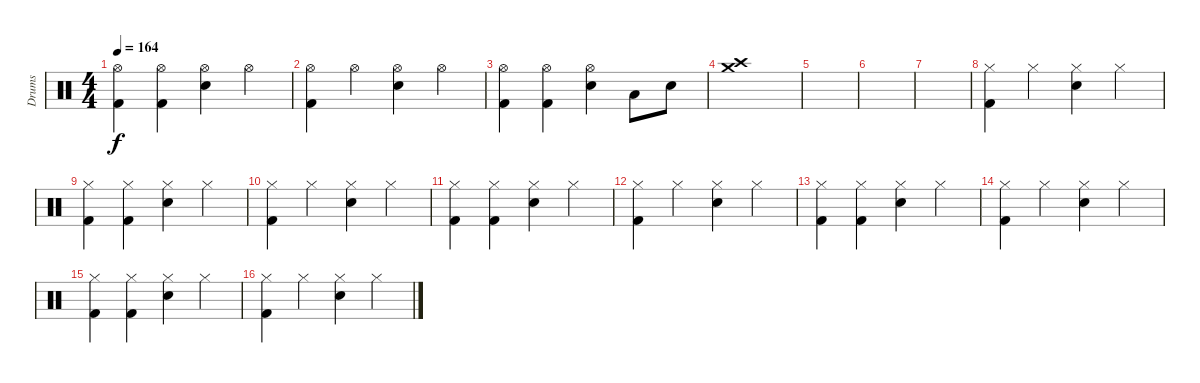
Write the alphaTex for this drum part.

\track ("Drums" "Drums") {instrument percussion}
\staff {score}
\articulation defaults
\ts (4 4)
\tempo 164
\clef neutral
\ks c
("Hi-Hat (open)" "Kick (hit) 2").4{dy f} ("Hi-Hat (open)" "Kick (hit) 2").4 ("Hi-Hat (open)" "Snare (hit) 2").4 "Hi-Hat (open)".4 |
("Hi-Hat (open)" "Kick (hit) 2").4 "Hi-Hat (open)".4 ("Hi-Hat (open)" "Snare (hit) 2").4 "Hi-Hat (open)".4 |
("Hi-Hat (open)" "Kick (hit) 2").4 ("Hi-Hat (open)" "Kick (hit) 2").4 ("Hi-Hat (open)" "Snare (hit) 2").4 "Low Tom (hit)".8 "Snare (hit) 2".8 |
("Crash high (hit)" "Crash medium (hit)").1 |
|
|
|
("Hi-Hat (closed)" "Kick (hit) 2").4 "Hi-Hat (closed)".4 ("Hi-Hat (closed)" "Snare (hit) 2").4 "Hi-Hat (closed)".4 |
("Hi-Hat (closed)" "Kick (hit) 2").4 ("Hi-Hat (closed)" "Kick (hit) 2").4 ("Hi-Hat (closed)" "Snare (hit) 2").4 "Hi-Hat (closed)".4 |
("Hi-Hat (closed)" "Kick (hit) 2").4 "Hi-Hat (closed)".4 ("Hi-Hat (closed)" "Snare (hit) 2").4 "Hi-Hat (closed)".4 |
("Hi-Hat (closed)" "Kick (hit) 2").4 ("Hi-Hat (closed)" "Kick (hit) 2").4 ("Hi-Hat (closed)" "Snare (hit) 2").4 "Hi-Hat (closed)".4 |
("Hi-Hat (closed)" "Kick (hit) 2").4 "Hi-Hat (closed)".4 ("Hi-Hat (closed)" "Snare (hit) 2").4 "Hi-Hat (closed)".4 |
("Hi-Hat (closed)" "Kick (hit) 2").4 ("Hi-Hat (closed)" "Kick (hit) 2").4 ("Hi-Hat (closed)" "Snare (hit) 2").4 "Hi-Hat (closed)".4 |
("Hi-Hat (closed)" "Kick (hit) 2").4 "Hi-Hat (closed)".4 ("Hi-Hat (closed)" "Snare (hit) 2").4 "Hi-Hat (closed)".4 |
("Hi-Hat (closed)" "Kick (hit) 2").4 ("Hi-Hat (closed)" "Kick (hit) 2").4 ("Hi-Hat (closed)" "Snare (hit) 2").4 "Hi-Hat (closed)".4 |
("Hi-Hat (closed)" "Kick (hit) 2").4 "Hi-Hat (closed)".4 ("Hi-Hat (closed)" "Snare (hit) 2").4 "Hi-Hat (closed)".4
